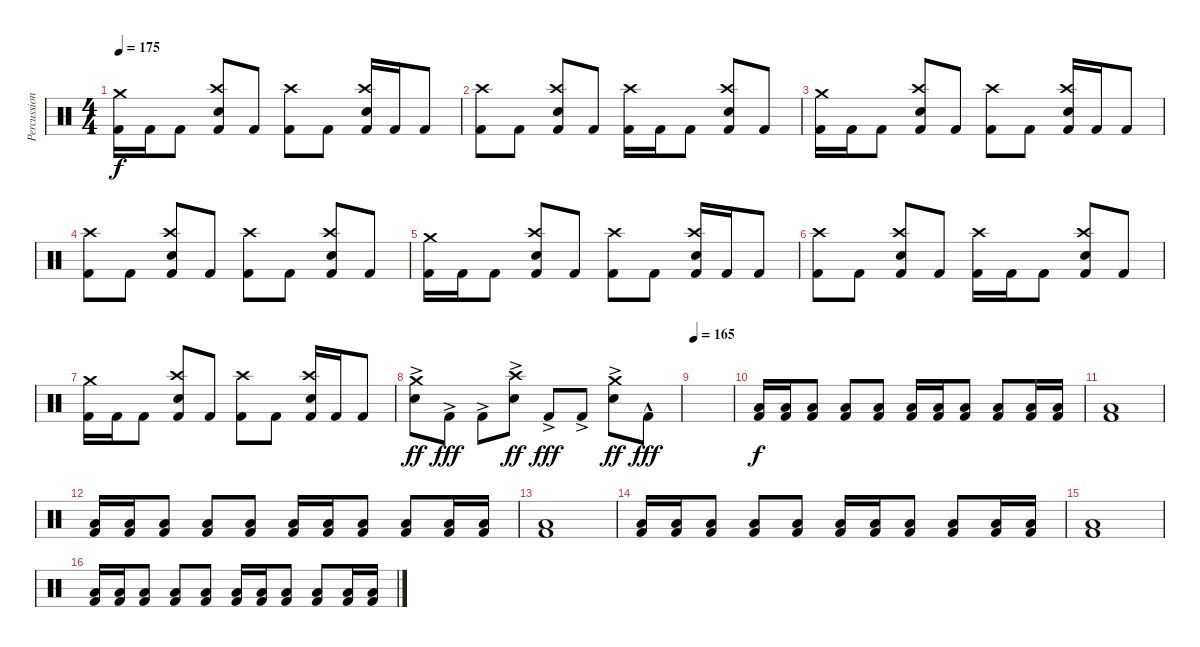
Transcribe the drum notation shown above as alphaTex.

\track ("Percussion" "Percussion") {instrument percussion}
\staff {score}
\articulation defaults
\ts (4 4)
\tempo 175
\clef neutral
\ks c
("Crash medium (hit)" "Kick (hit) 2").16{dy f} "Kick (hit) 2".16 "Kick (hit) 2".8 ("Crash high (hit)" "Snare (hit) 2" "Kick (hit) 2").8 "Kick (hit) 2".8 ("Crash high (hit)" "Kick (hit) 2").8 "Kick (hit) 2".8 ("Crash high (hit)" "Snare (hit) 2" "Kick (hit) 2").16 "Kick (hit) 2".16 "Kick (hit) 2".8 |
("Crash high (hit)" "Kick (hit) 2").8 "Kick (hit) 2".8 ("Crash high (hit)" "Snare (hit) 2" "Kick (hit) 2").8 "Kick (hit) 2".8 ("Crash high (hit)" "Kick (hit) 2").16 "Kick (hit) 2".16 "Kick (hit) 2".8 ("Crash high (hit)" "Snare (hit) 2" "Kick (hit) 2").8 "Kick (hit) 2".8 |
("Crash medium (hit)" "Kick (hit) 2").16 "Kick (hit) 2".16 "Kick (hit) 2".8 ("Crash high (hit)" "Snare (hit) 2" "Kick (hit) 2").8 "Kick (hit) 2".8 ("Crash high (hit)" "Kick (hit) 2").8 "Kick (hit) 2".8 ("Crash high (hit)" "Snare (hit) 2" "Kick (hit) 2").16 "Kick (hit) 2".16 "Kick (hit) 2".8 |
("Crash high (hit)" "Kick (hit) 2").8 "Kick (hit) 2".8 ("Crash high (hit)" "Snare (hit) 2" "Kick (hit) 2").8 "Kick (hit) 2".8 ("Crash high (hit)" "Kick (hit) 2").8 "Kick (hit) 2".8 ("Crash high (hit)" "Snare (hit) 2" "Kick (hit) 2").8 "Kick (hit) 2".8 |
("Crash medium (hit)" "Kick (hit) 2").16 "Kick (hit) 2".16 "Kick (hit) 2".8 ("Crash high (hit)" "Snare (hit) 2" "Kick (hit) 2").8 "Kick (hit) 2".8 ("Crash high (hit)" "Kick (hit) 2").8 "Kick (hit) 2".8 ("Crash high (hit)" "Snare (hit) 2" "Kick (hit) 2").16 "Kick (hit) 2".16 "Kick (hit) 2".8 |
("Crash high (hit)" "Kick (hit) 2").8 "Kick (hit) 2".8 ("Crash high (hit)" "Snare (hit) 2" "Kick (hit) 2").8 "Kick (hit) 2".8 ("Crash high (hit)" "Kick (hit) 2").16 "Kick (hit) 2".16 "Kick (hit) 2".8 ("Crash high (hit)" "Snare (hit) 2" "Kick (hit) 2").8 "Kick (hit) 2".8 |
("Crash medium (hit)" "Kick (hit) 2").16 "Kick (hit) 2".16 "Kick (hit) 2".8 ("Crash high (hit)" "Snare (hit) 2" "Kick (hit) 2").8 "Kick (hit) 2".8 ("Crash high (hit)" "Kick (hit) 2").8 "Kick (hit) 2".8 ("Crash high (hit)" "Snare (hit) 2" "Kick (hit) 2").16 "Kick (hit) 2".16 "Kick (hit) 2".8 |
("Crash medium (hit)"{ac} "Electric Snare (hit)").8{dy ff} "Kick (hit) 2"{ac}.8{dy fff} "Kick (hit) 2"{ac}.8 ("Crash high (hit)"{ac} "Electric Snare (hit)").8{dy ff} "Kick (hit) 2"{ac}.8{dy fff} "Kick (hit) 2"{ac}.8 ("Crash medium (hit)"{ac} "Electric Snare (hit)").8{dy ff} "Kick (hit) 2"{hac}.8{dy fff} |
\tempo 165
|
("Low Floor Tom (hit)" "Kick (hit) 2").16{dy f} ("Low Floor Tom (hit)" "Kick (hit) 2").16 ("Low Floor Tom (hit)" "Kick (hit) 2").8 ("Low Floor Tom (hit)" "Kick (hit) 2").8 ("Low Floor Tom (hit)" "Kick (hit) 2").8 ("Low Floor Tom (hit)" "Kick (hit) 2").16 ("Low Floor Tom (hit)" "Kick (hit) 2").16 ("Low Floor Tom (hit)" "Kick (hit) 2").8 ("Low Floor Tom (hit)" "Kick (hit) 2").8 ("Low Floor Tom (hit)" "Kick (hit) 2").16 ("Low Floor Tom (hit)" "Kick (hit) 2").16 |
("Low Floor Tom (hit)" "Kick (hit) 2").1 |
("Low Floor Tom (hit)" "Kick (hit) 2").16 ("Low Floor Tom (hit)" "Kick (hit) 2").16 ("Low Floor Tom (hit)" "Kick (hit) 2").8 ("Low Floor Tom (hit)" "Kick (hit) 2").8 ("Low Floor Tom (hit)" "Kick (hit) 2").8 ("Low Floor Tom (hit)" "Kick (hit) 2").16 ("Low Floor Tom (hit)" "Kick (hit) 2").16 ("Low Floor Tom (hit)" "Kick (hit) 2").8 ("Low Floor Tom (hit)" "Kick (hit) 2").8 ("Low Floor Tom (hit)" "Kick (hit) 2").16 ("Low Floor Tom (hit)" "Kick (hit) 2").16 |
("Low Floor Tom (hit)" "Kick (hit) 2").1 |
("Low Floor Tom (hit)" "Kick (hit) 2").16 ("Low Floor Tom (hit)" "Kick (hit) 2").16 ("Low Floor Tom (hit)" "Kick (hit) 2").8 ("Low Floor Tom (hit)" "Kick (hit) 2").8 ("Low Floor Tom (hit)" "Kick (hit) 2").8 ("Low Floor Tom (hit)" "Kick (hit) 2").16 ("Low Floor Tom (hit)" "Kick (hit) 2").16 ("Low Floor Tom (hit)" "Kick (hit) 2").8 ("Low Floor Tom (hit)" "Kick (hit) 2").8 ("Low Floor Tom (hit)" "Kick (hit) 2").16 ("Low Floor Tom (hit)" "Kick (hit) 2").16 |
("Low Floor Tom (hit)" "Kick (hit) 2").1 |
("Low Floor Tom (hit)" "Kick (hit) 2").16 ("Low Floor Tom (hit)" "Kick (hit) 2").16 ("Low Floor Tom (hit)" "Kick (hit) 2").8 ("Low Floor Tom (hit)" "Kick (hit) 2").8 ("Low Floor Tom (hit)" "Kick (hit) 2").8 ("Low Floor Tom (hit)" "Kick (hit) 2").16 ("Low Floor Tom (hit)" "Kick (hit) 2").16 ("Low Floor Tom (hit)" "Kick (hit) 2").8 ("Low Floor Tom (hit)" "Kick (hit) 2").8 ("Low Floor Tom (hit)" "Kick (hit) 2").16 ("Low Floor Tom (hit)" "Kick (hit) 2").16
